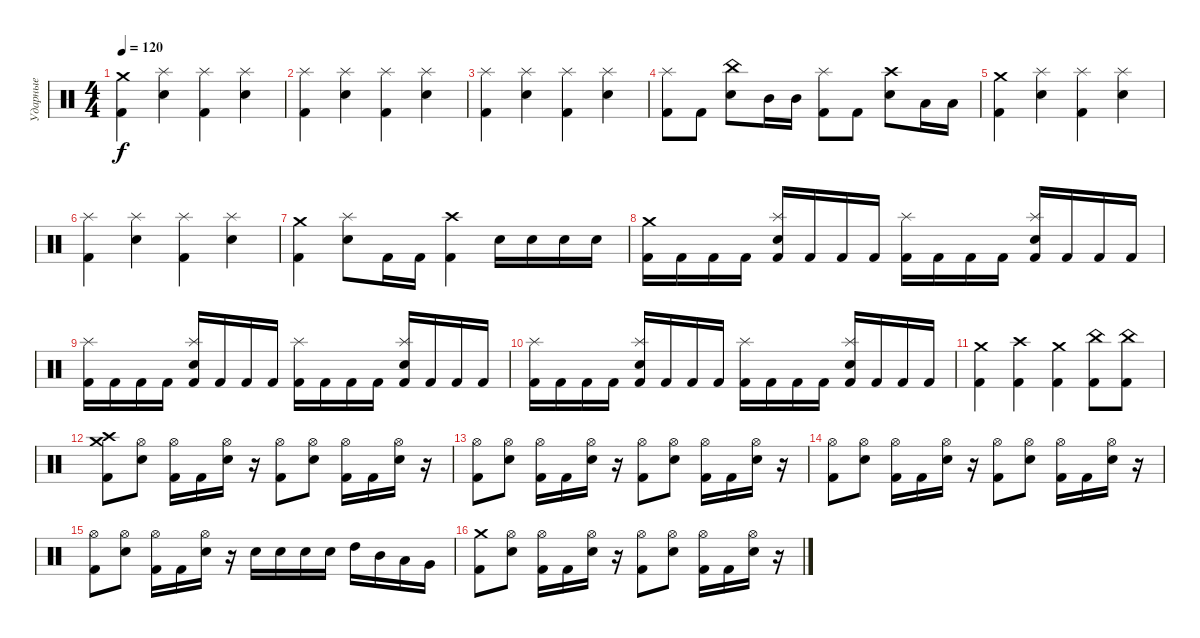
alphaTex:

\track ("Ударные" "Ударные") {instrument percussion}
\staff {score}
\articulation defaults
\ts (4 4)
\tempo 120
\clef neutral
\ks c
("Crash medium (hit)" "Kick (hit) 2").4{dy f} ("Splash (hit)" "Electric Snare (hit)").4 ("Splash (hit)" "Kick (hit) 2").4 ("Splash (hit)" "Electric Snare (hit)").4 |
("Splash (hit)" "Kick (hit) 2").4 ("Splash (hit)" "Electric Snare (hit)").4 ("Splash (hit)" "Kick (hit) 2").4 ("Splash (hit)" "Electric Snare (hit)").4 |
("Splash (hit)" "Kick (hit) 2").4 ("Splash (hit)" "Electric Snare (hit)").4 ("Splash (hit)" "Kick (hit) 2").4 ("Splash (hit)" "Electric Snare (hit)").4 |
("Splash (hit)" "Kick (hit) 2").8 "Kick (hit) 2".8 ("China (hit)" "Electric Snare (hit)").8 "Mid Tom (hit)".16 "Mid Tom (hit)".16 ("Splash (hit)" "Kick (hit) 2").8 "Kick (hit) 2".8 ("Crash high (hit)" "Electric Snare (hit)").8 "Low Tom (hit)".16 "Low Tom (hit)".16 |
("Crash medium (hit)" "Kick (hit) 2").4 ("Splash (hit)" "Electric Snare (hit)").4 ("Splash (hit)" "Kick (hit) 2").4 ("Splash (hit)" "Electric Snare (hit)").4 |
("Splash (hit)" "Kick (hit) 2").4 ("Splash (hit)" "Electric Snare (hit)").4 ("Splash (hit)" "Kick (hit) 2").4 ("Splash (hit)" "Electric Snare (hit)").4 |
("Crash medium (hit)" "Kick (hit) 2").4 ("Splash (hit)" "Electric Snare (hit)").8 "Kick (hit) 2".16 "Kick (hit) 2".16 ("Crash high (hit)" "Kick (hit) 2").4 "Electric Snare (hit)".16 "Electric Snare (hit)".16 "Electric Snare (hit)".16 "Electric Snare (hit)".16 |
("Crash medium (hit)" "Kick (hit) 2").16 "Kick (hit) 2".16 "Kick (hit) 2".16 "Kick (hit) 2".16 ("Splash (hit)" "Electric Snare (hit)" "Kick (hit) 2").16 "Kick (hit) 2".16 "Kick (hit) 2".16 "Kick (hit) 2".16 ("Splash (hit)" "Kick (hit) 2").16 "Kick (hit) 2".16 "Kick (hit) 2".16 "Kick (hit) 2".16 ("Splash (hit)" "Electric Snare (hit)" "Kick (hit) 2").16 "Kick (hit) 2".16 "Kick (hit) 2".16 "Kick (hit) 2".16 |
("Splash (hit)" "Kick (hit) 2").16 "Kick (hit) 2".16 "Kick (hit) 2".16 "Kick (hit) 2".16 ("Splash (hit)" "Electric Snare (hit)" "Kick (hit) 2").16 "Kick (hit) 2".16 "Kick (hit) 2".16 "Kick (hit) 2".16 ("Splash (hit)" "Kick (hit) 2").16 "Kick (hit) 2".16 "Kick (hit) 2".16 "Kick (hit) 2".16 ("Splash (hit)" "Electric Snare (hit)" "Kick (hit) 2").16 "Kick (hit) 2".16 "Kick (hit) 2".16 "Kick (hit) 2".16 |
("Splash (hit)" "Kick (hit) 2").16 "Kick (hit) 2".16 "Kick (hit) 2".16 "Kick (hit) 2".16 ("Splash (hit)" "Electric Snare (hit)" "Kick (hit) 2").16 "Kick (hit) 2".16 "Kick (hit) 2".16 "Kick (hit) 2".16 ("Splash (hit)" "Kick (hit) 2").16 "Kick (hit) 2".16 "Kick (hit) 2".16 "Kick (hit) 2".16 ("Splash (hit)" "Electric Snare (hit)" "Kick (hit) 2").16 "Kick (hit) 2".16 "Kick (hit) 2".16 "Kick (hit) 2".16 |
("Crash medium (hit)" "Kick (hit) 2").4 ("Crash high (hit)" "Kick (hit) 2").4 ("Crash medium (hit)" "Kick (hit) 2").4 ("China (hit)" "Kick (hit) 2").8 ("China (hit)" "Kick (hit) 2").8 |
("Crash medium (hit)" "Kick (hit) 2" "Crash high (hit)").8 ("Hi-Hat (open)" "Electric Snare (hit)").8 ("Hi-Hat (open)" "Kick (hit) 2").16 "Kick (hit) 2".16 ("Hi-Hat (open)" "Electric Snare (hit)").16 r.16 ("Hi-Hat (open)" "Kick (hit) 2").8 ("Hi-Hat (open)" "Electric Snare (hit)").8 ("Hi-Hat (open)" "Kick (hit) 2").16 "Kick (hit) 2".16 ("Hi-Hat (open)" "Electric Snare (hit)").16 r.16 |
("Hi-Hat (open)" "Kick (hit) 2").8 ("Hi-Hat (open)" "Electric Snare (hit)").8 ("Hi-Hat (open)" "Kick (hit) 2").16 "Kick (hit) 2".16 ("Hi-Hat (open)" "Electric Snare (hit)").16 r.16 ("Hi-Hat (open)" "Kick (hit) 2").8 ("Hi-Hat (open)" "Electric Snare (hit)").8 ("Hi-Hat (open)" "Kick (hit) 2").16 "Kick (hit) 2".16 ("Hi-Hat (open)" "Electric Snare (hit)").16 r.16 |
("Hi-Hat (open)" "Kick (hit) 2").8 ("Hi-Hat (open)" "Electric Snare (hit)").8 ("Hi-Hat (open)" "Kick (hit) 2").16 "Kick (hit) 2".16 ("Hi-Hat (open)" "Electric Snare (hit)").16 r.16 ("Hi-Hat (open)" "Kick (hit) 2").8 ("Hi-Hat (open)" "Electric Snare (hit)").8 ("Hi-Hat (open)" "Kick (hit) 2").16 "Kick (hit) 2".16 ("Hi-Hat (open)" "Electric Snare (hit)").16 r.16 |
("Hi-Hat (open)" "Kick (hit) 2").8 ("Hi-Hat (open)" "Electric Snare (hit)").8 ("Hi-Hat (open)" "Kick (hit) 2").16 "Kick (hit) 2".16 ("Hi-Hat (open)" "Electric Snare (hit)").16 r.16 "Electric Snare (hit)".16 "Electric Snare (hit)".16 "Electric Snare (hit)".16 "Electric Snare (hit)".16 "High Tom (hit)".16 "Mid Tom (hit)".16 "Low Tom (hit)".16 "Very Low Tom (hit)".16 |
("Crash medium (hit)" "Kick (hit) 2").8 ("Hi-Hat (open)" "Electric Snare (hit)").8 ("Hi-Hat (open)" "Kick (hit) 2").16 "Kick (hit) 2".16 ("Hi-Hat (open)" "Electric Snare (hit)").16 r.16 ("Hi-Hat (open)" "Kick (hit) 2").8 ("Hi-Hat (open)" "Electric Snare (hit)").8 ("Hi-Hat (open)" "Kick (hit) 2").16 "Kick (hit) 2".16 ("Hi-Hat (open)" "Electric Snare (hit)").16 r.16
